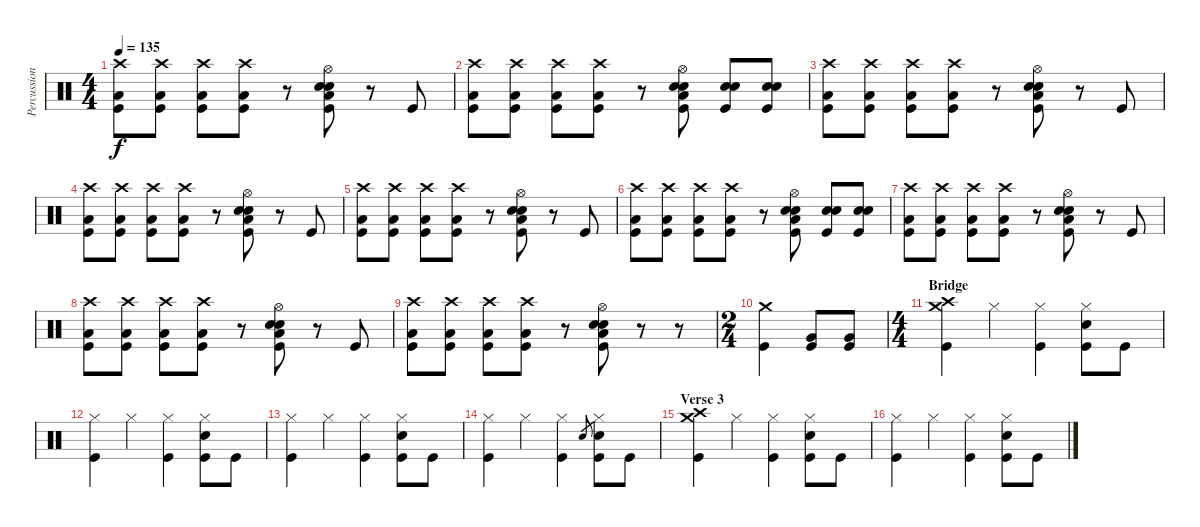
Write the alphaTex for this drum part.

\track ("Percussions" "Percussion") {instrument percussion}
\staff {score}
\articulation defaults
\ts (4 4)
\tempo 135
\clef neutral
\ks c
("Crash high (hit)" "Low Floor Tom (hit)" "Kick (hit)").8{dy f} ("Crash high (hit)" "Low Floor Tom (hit)" "Kick (hit)").8 ("Crash high (hit)" "Low Floor Tom (hit)" "Kick (hit)").8 ("Crash high (hit)" "Low Floor Tom (hit)" "Kick (hit)").8 r.8 ("Hi-Hat (open)" "Electric Snare (hit)" "Snare (hit) 2" "Low Floor Tom (hit)" "Kick (hit)").8 r.8 "Kick (hit)".8 |
("Crash high (hit)" "Low Floor Tom (hit)" "Kick (hit)").8 ("Crash high (hit)" "Low Floor Tom (hit)" "Kick (hit)").8 ("Crash high (hit)" "Low Floor Tom (hit)" "Kick (hit)").8 ("Crash high (hit)" "Low Floor Tom (hit)" "Kick (hit)").8 r.8 ("Hi-Hat (open)" "Electric Snare (hit)" "Snare (hit) 2" "Low Floor Tom (hit)" "Kick (hit)").8 ("Electric Snare (hit)" "Snare (hit) 2" "Kick (hit)").8 ("Electric Snare (hit)" "Snare (hit) 2" "Kick (hit)").8 |
("Crash high (hit)" "Low Floor Tom (hit)" "Kick (hit)").8 ("Crash high (hit)" "Low Floor Tom (hit)" "Kick (hit)").8 ("Crash high (hit)" "Low Floor Tom (hit)" "Kick (hit)").8 ("Crash high (hit)" "Low Floor Tom (hit)" "Kick (hit)").8 r.8 ("Hi-Hat (open)" "Electric Snare (hit)" "Snare (hit) 2" "Low Floor Tom (hit)" "Kick (hit)").8 r.8 "Kick (hit)".8 |
("Crash high (hit)" "Low Floor Tom (hit)" "Kick (hit)").8 ("Crash high (hit)" "Low Floor Tom (hit)" "Kick (hit)").8 ("Crash high (hit)" "Low Floor Tom (hit)" "Kick (hit)").8 ("Crash high (hit)" "Low Floor Tom (hit)" "Kick (hit)").8 r.8 ("Hi-Hat (open)" "Electric Snare (hit)" "Snare (hit) 2" "Low Floor Tom (hit)" "Kick (hit)").8 r.8 "Kick (hit)".8 |
("Crash high (hit)" "Low Floor Tom (hit)" "Kick (hit)").8 ("Crash high (hit)" "Low Floor Tom (hit)" "Kick (hit)").8 ("Crash high (hit)" "Low Floor Tom (hit)" "Kick (hit)").8 ("Crash high (hit)" "Low Floor Tom (hit)" "Kick (hit)").8 r.8 ("Hi-Hat (open)" "Electric Snare (hit)" "Snare (hit) 2" "Low Floor Tom (hit)" "Kick (hit)").8 r.8 "Kick (hit)".8 |
("Crash high (hit)" "Low Floor Tom (hit)" "Kick (hit)").8 ("Crash high (hit)" "Low Floor Tom (hit)" "Kick (hit)").8 ("Crash high (hit)" "Low Floor Tom (hit)" "Kick (hit)").8 ("Crash high (hit)" "Low Floor Tom (hit)" "Kick (hit)").8 r.8 ("Hi-Hat (open)" "Electric Snare (hit)" "Snare (hit) 2" "Low Floor Tom (hit)" "Kick (hit)").8 ("Electric Snare (hit)" "Snare (hit) 2" "Kick (hit)").8 ("Electric Snare (hit)" "Snare (hit) 2" "Kick (hit)").8 |
("Crash high (hit)" "Low Floor Tom (hit)" "Kick (hit)").8 ("Crash high (hit)" "Low Floor Tom (hit)" "Kick (hit)").8 ("Crash high (hit)" "Low Floor Tom (hit)" "Kick (hit)").8 ("Crash high (hit)" "Low Floor Tom (hit)" "Kick (hit)").8 r.8 ("Hi-Hat (open)" "Electric Snare (hit)" "Snare (hit) 2" "Low Floor Tom (hit)" "Kick (hit)").8 r.8 "Kick (hit)".8 |
("Crash high (hit)" "Low Floor Tom (hit)" "Kick (hit)").8 ("Crash high (hit)" "Low Floor Tom (hit)" "Kick (hit)").8 ("Crash high (hit)" "Low Floor Tom (hit)" "Kick (hit)").8 ("Crash high (hit)" "Low Floor Tom (hit)" "Kick (hit)").8 r.8 ("Hi-Hat (open)" "Electric Snare (hit)" "Snare (hit) 2" "Low Floor Tom (hit)" "Kick (hit)").8 r.8 "Kick (hit)".8 |
("Crash high (hit)" "Low Floor Tom (hit)" "Kick (hit)").8 ("Crash high (hit)" "Low Floor Tom (hit)" "Kick (hit)").8 ("Crash high (hit)" "Low Floor Tom (hit)" "Kick (hit)").8 ("Crash high (hit)" "Low Floor Tom (hit)" "Kick (hit)").8 r.8 ("Hi-Hat (open)" "Electric Snare (hit)" "Snare (hit) 2" "Low Floor Tom (hit)" "Kick (hit)").8 r.8 r.8 |
\ts (2 4)
("Crash medium (hit)" "Kick (hit)").4 ("Very Low Tom (hit)" "Kick (hit)").8 ("Very Low Tom (hit)" "Kick (hit)").8 |
\ts (4 4)
\section ("" "Bridge")
("Crash high (hit)" "Crash medium (hit)" "Kick (hit)").4 "Hi-Hat (closed)".4 ("Hi-Hat (closed)" "Kick (hit)").4 ("Hi-Hat (closed)" "Electric Snare (hit)" "Kick (hit)").8 "Kick (hit)".8 |
("Hi-Hat (closed)" "Kick (hit)").4 "Hi-Hat (closed)".4 ("Hi-Hat (closed)" "Kick (hit)").4 ("Hi-Hat (closed)" "Electric Snare (hit)" "Kick (hit)").8 "Kick (hit)".8 |
("Hi-Hat (closed)" "Kick (hit)").4 "Hi-Hat (closed)".4 ("Hi-Hat (closed)" "Kick (hit)").4 ("Hi-Hat (closed)" "Electric Snare (hit)" "Kick (hit)").8 "Kick (hit)".8 |
("Hi-Hat (closed)" "Kick (hit)").4 "Hi-Hat (closed)".4 ("Hi-Hat (closed)" "Kick (hit)").4 "Electric Snare (hit)".8{gr} ("Hi-Hat (closed)" "Electric Snare (hit)" "Kick (hit)").8 "Kick (hit)".8 |
\section ("" "Verse 3")
("Crash high (hit)" "Crash medium (hit)" "Kick (hit)").4 "Hi-Hat (closed)".4 ("Hi-Hat (closed)" "Kick (hit)").4 ("Hi-Hat (closed)" "Electric Snare (hit)" "Kick (hit)").8 "Kick (hit)".8 |
("Hi-Hat (closed)" "Kick (hit)").4 "Hi-Hat (closed)".4 ("Hi-Hat (closed)" "Kick (hit)").4 ("Hi-Hat (closed)" "Electric Snare (hit)" "Kick (hit)").8 "Kick (hit)".8
